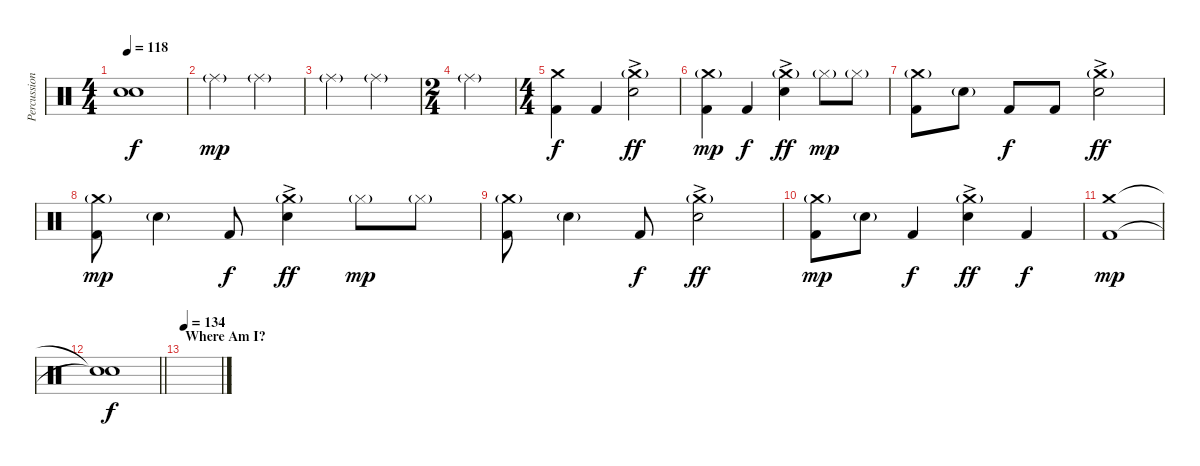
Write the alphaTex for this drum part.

\track ("Percussion" "Percussion") {instrument percussion}
\staff {score}
\articulation defaults
\ts (4 4)
\tempo 118
\clef neutral
\ks c
("Snare (hit)"{t} "Snare (hit)"{t}).1{dy f} |
"Ride (middle)"{g}.2{dy mp} "Ride (middle)"{g}.2 |
"Ride (middle)"{g}.2 "Ride (middle)"{g}.2 |
\ts (2 4)
"Ride (middle)"{g}.2 |
\ts (4 4)
("Crash medium (hit)" "Kick (hit) 2").4{dy f} "Kick (hit) 2".4 ("Crash medium (hit)"{g} "Electric Snare (hit)"{ac}).2{dy ff} |
("Crash medium (hit)"{g} "Kick (hit) 2").4{dy mp} "Kick (hit) 2".4{dy f} ("Crash medium (hit)"{g} "Electric Snare (hit)"{ac}).4{dy ff} "Hi-Hat (closed)"{g}.8{dy mp} "Hi-Hat (closed)"{g}.8 |
("Crash medium (hit)"{g} "Kick (hit) 2").8 "Electric Snare (hit)"{g}.8 "Kick (hit) 2".8{dy f} "Kick (hit) 2".8 ("Crash medium (hit)"{g} "Electric Snare (hit)"{ac}).2{dy ff} |
("Crash medium (hit)"{g} "Kick (hit) 2").8{dy mp} "Electric Snare (hit)"{g}.4 "Kick (hit) 2".8{dy f} ("Crash medium (hit)"{g} "Electric Snare (hit)"{ac}).4{dy ff} "Hi-Hat (closed)"{g}.8{dy mp} "Hi-Hat (closed)"{g}.8 |
("Crash medium (hit)"{g} "Kick (hit) 2").8 "Electric Snare (hit)"{g}.4 "Kick (hit) 2".8{dy f} ("Crash medium (hit)"{g} "Electric Snare (hit)"{ac}).2{dy ff} |
("Crash medium (hit)"{g} "Kick (hit) 2").8{dy mp} "Electric Snare (hit)"{g}.8 "Kick (hit) 2".4{dy f} ("Crash medium (hit)"{g} "Electric Snare (hit)"{ac}).4{dy ff} "Kick (hit) 2".4{dy f} |
("Crash medium (hit)" "Kick (hit) 2").1{dy mp} |
\barLineRight lightlight
("Snare (hit)"{t} "Snare (hit)"{t}).1{dy f} |
\section ("" "Where Am I?")
\tempo 134
